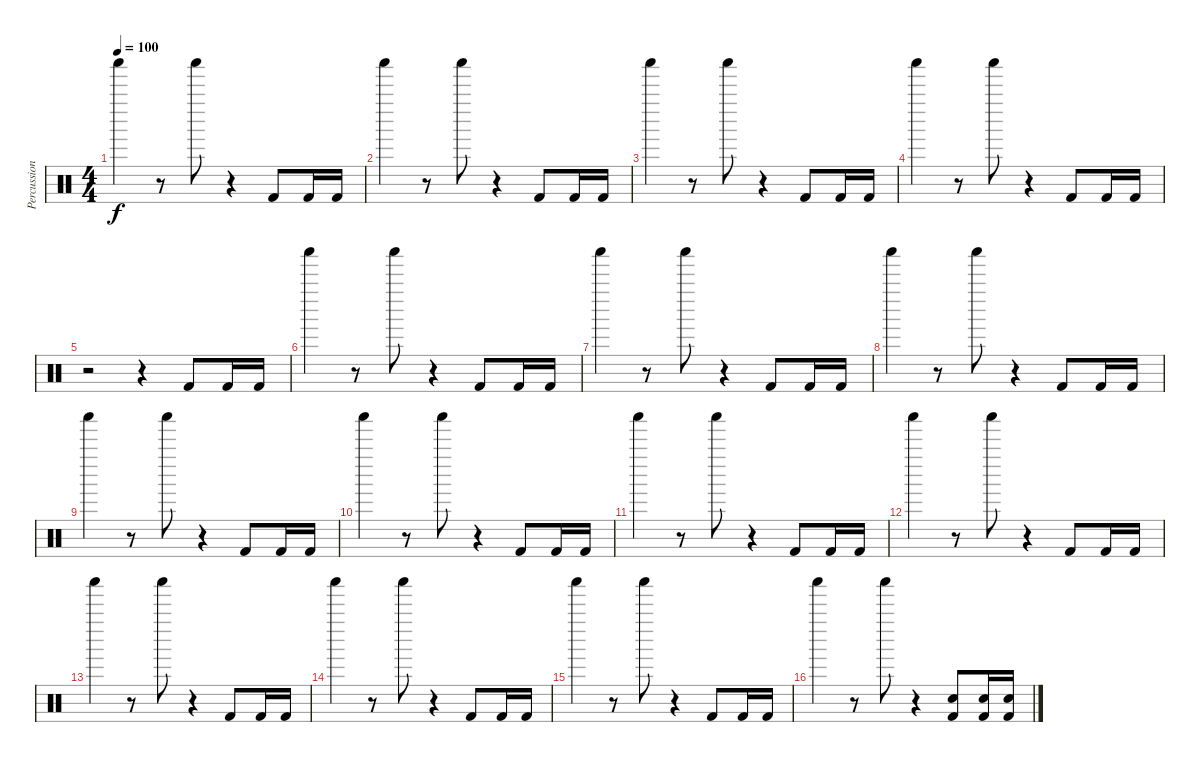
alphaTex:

\track ("Percussion" "Percussion") {instrument percussion}
\staff {score}
\articulation defaults
\ts (4 4)
\tempo 100
\clef neutral
\ks c "Shaker (hit)".4{dy f}
r.8 "Shaker (hit)".8 r.4 "Kick (hit) 2".8 "Kick (hit) 2".16 "Kick (hit) 2".16 |
"Shaker (hit)".4 r.8 "Shaker (hit)".8 r.4 "Kick (hit) 2".8 "Kick (hit) 2".16 "Kick (hit) 2".16 |
"Shaker (hit)".4 r.8 "Shaker (hit)".8 r.4 "Kick (hit) 2".8 "Kick (hit) 2".16 "Kick (hit) 2".16 |
"Shaker (hit)".4 r.8 "Shaker (hit)".8 r.4 "Kick (hit) 2".8 "Kick (hit) 2".16 "Kick (hit) 2".16 |
r.2 r.4 "Kick (hit) 2".8 "Kick (hit) 2".16 "Kick (hit) 2".16 |
"Shaker (hit)".4 r.8 "Shaker (hit)".8 r.4 "Kick (hit) 2".8 "Kick (hit) 2".16 "Kick (hit) 2".16 |
"Shaker (hit)".4 r.8 "Shaker (hit)".8 r.4 "Kick (hit) 2".8 "Kick (hit) 2".16 "Kick (hit) 2".16 |
"Shaker (hit)".4 r.8 "Shaker (hit)".8 r.4 "Kick (hit) 2".8 "Kick (hit) 2".16 "Kick (hit) 2".16 |
"Shaker (hit)".4 r.8 "Shaker (hit)".8 r.4 "Kick (hit) 2".8 "Kick (hit) 2".16 "Kick (hit) 2".16 |
"Shaker (hit)".4 r.8 "Shaker (hit)".8 r.4 "Kick (hit) 2".8 "Kick (hit) 2".16 "Kick (hit) 2".16 |
"Shaker (hit)".4 r.8 "Shaker (hit)".8 r.4 "Kick (hit) 2".8 "Kick (hit) 2".16 "Kick (hit) 2".16 |
"Shaker (hit)".4 r.8 "Shaker (hit)".8 r.4 "Kick (hit) 2".8 "Kick (hit) 2".16 "Kick (hit) 2".16 |
"Shaker (hit)".4 r.8 "Shaker (hit)".8 r.4 "Kick (hit) 2".8 "Kick (hit) 2".16 "Kick (hit) 2".16 |
"Shaker (hit)".4 r.8 "Shaker (hit)".8 r.4 "Kick (hit) 2".8 "Kick (hit) 2".16 "Kick (hit) 2".16 |
"Shaker (hit)".4 r.8 "Shaker (hit)".8 r.4 "Kick (hit) 2".8 "Kick (hit) 2".16 "Kick (hit) 2".16 |
"Shaker (hit)".4 r.8 "Shaker (hit)".8 r.4 ("Snare (hit) 2" "Kick (hit) 2").8 ("Snare (hit) 2" "Kick (hit) 2").16 ("Snare (hit) 2" "Kick (hit) 2").16
